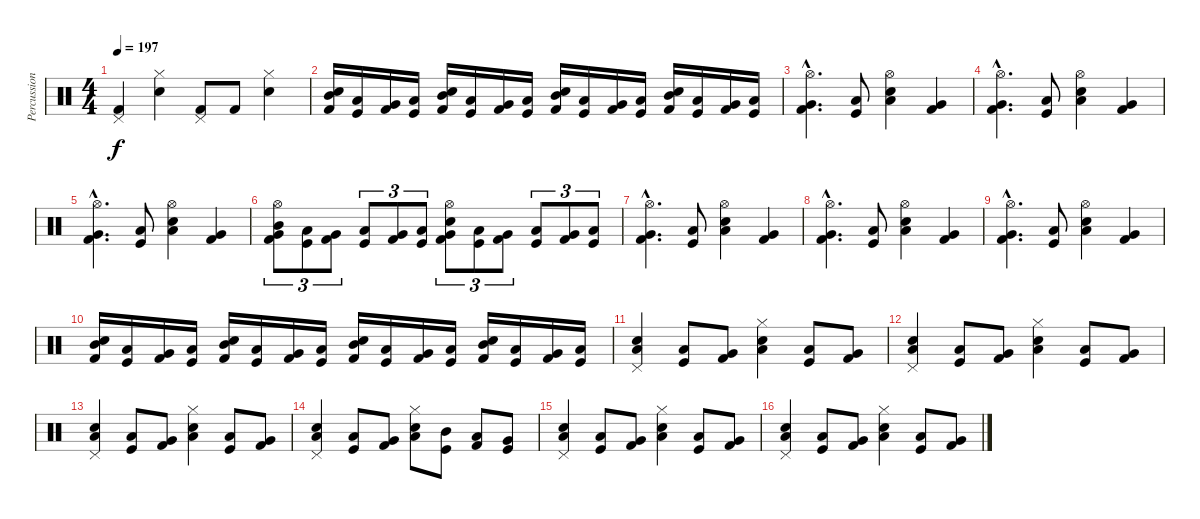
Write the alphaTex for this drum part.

\track ("Percussions" "Percussion") {instrument percussion}
\staff {score}
\articulation defaults
\ts (4 4)
\tempo 197
\clef neutral
\ks c
("Pedal Hi-Hat (hit)" "Kick (hit) 2").4{dy f} ("Hi-Hat (closed)" "Electric Snare (hit)").4 ("Pedal Hi-Hat (hit)" "Kick (hit) 2").8 "Kick (hit) 2".8 ("Hi-Hat (closed)" "Electric Snare (hit)").4 |
("Electric Snare (hit)" "Mid Tom (hit)" "Kick (hit) 2").16 ("Low Tom (hit)" "Kick (hit)").16 ("Very Low Tom (hit)" "Kick (hit) 2").16 ("Low Floor Tom (hit)" "Kick (hit)").16 ("Electric Snare (hit)" "Mid Tom (hit)" "Kick (hit) 2").16 ("Low Tom (hit)" "Kick (hit)").16 ("Very Low Tom (hit)" "Kick (hit) 2").16 ("Low Floor Tom (hit)" "Kick (hit)").16 ("Electric Snare (hit)" "Mid Tom (hit)" "Kick (hit) 2").16 ("Low Tom (hit)" "Kick (hit)").16 ("Very Low Tom (hit)" "Kick (hit) 2").16 ("Low Floor Tom (hit)" "Kick (hit)").16 ("Electric Snare (hit)" "Mid Tom (hit)" "Kick (hit) 2").16 ("Low Tom (hit)" "Kick (hit)").16 ("Very Low Tom (hit)" "Kick (hit) 2").16 ("Low Floor Tom (hit)" "Kick (hit)").16 |
("Hi-Hat (open)"{hac} "Very Low Tom (hit)"{hac} "Kick (hit) 2"{hac}).4{d} ("Low Tom (hit)" "Kick (hit)").8 ("Hi-Hat (open)" "Low Floor Tom (hit)" "Electric Snare (hit)").4 ("Very Low Tom (hit)" "Kick (hit) 2").4 |
("Hi-Hat (open)"{hac} "Very Low Tom (hit)"{hac} "Kick (hit) 2"{hac}).4{d} ("Low Tom (hit)" "Kick (hit)").8 ("Hi-Hat (open)" "Low Floor Tom (hit)" "Electric Snare (hit)").4 ("Very Low Tom (hit)" "Kick (hit) 2").4 |
("Hi-Hat (open)"{hac} "Very Low Tom (hit)"{hac} "Kick (hit) 2"{hac}).4{d} ("Low Tom (hit)" "Kick (hit)").8 ("Hi-Hat (open)" "Low Floor Tom (hit)" "Electric Snare (hit)").4 ("Very Low Tom (hit)" "Kick (hit) 2").4 |
("Hi-Hat (open)" "Mid Tom (hit)" "Very Low Tom (hit)" "Kick (hit) 2").8{tu (3 2)} ("Low Tom (hit)" "Kick (hit)").8{tu (3 2)} ("Very Low Tom (hit)" "Kick (hit) 2").8{tu (3 2)} ("Low Tom (hit)" "Kick (hit)").8{tu (3 2)} ("Very Low Tom (hit)" "Kick (hit) 2").8{tu (3 2)} ("Low Tom (hit)" "Kick (hit)").8{tu (3 2)} ("Hi-Hat (open)" "Electric Snare (hit)" "Very Low Tom (hit)" "Kick (hit) 2").8{tu (3 2)} ("Low Tom (hit)" "Kick (hit)").8{tu (3 2)} ("Very Low Tom (hit)" "Kick (hit) 2").8{tu (3 2)} ("Low Tom (hit)" "Kick (hit)").8{tu (3 2)} ("Very Low Tom (hit)" "Kick (hit) 2").8{tu (3 2)} ("Low Tom (hit)" "Kick (hit)").8{tu (3 2)} |
("Hi-Hat (open)"{hac} "Very Low Tom (hit)"{hac} "Kick (hit) 2"{hac}).4{d} ("Low Tom (hit)" "Kick (hit)").8 ("Hi-Hat (open)" "Low Floor Tom (hit)" "Electric Snare (hit)").4 ("Very Low Tom (hit)" "Kick (hit) 2").4 |
("Hi-Hat (open)"{hac} "Very Low Tom (hit)"{hac} "Kick (hit) 2"{hac}).4{d} ("Low Tom (hit)" "Kick (hit)").8 ("Hi-Hat (open)" "Low Floor Tom (hit)" "Electric Snare (hit)").4 ("Very Low Tom (hit)" "Kick (hit) 2").4 |
("Hi-Hat (open)"{hac} "Very Low Tom (hit)"{hac} "Kick (hit) 2"{hac}).4{d} ("Low Tom (hit)" "Kick (hit)").8 ("Hi-Hat (open)" "Low Floor Tom (hit)" "Electric Snare (hit)").4 ("Very Low Tom (hit)" "Kick (hit) 2").4 |
("Electric Snare (hit)" "Mid Tom (hit)" "Kick (hit) 2").16 ("Low Tom (hit)" "Kick (hit)").16 ("Very Low Tom (hit)" "Kick (hit) 2").16 ("Low Floor Tom (hit)" "Kick (hit)").16 ("Electric Snare (hit)" "Mid Tom (hit)" "Kick (hit) 2").16 ("Low Tom (hit)" "Kick (hit)").16 ("Very Low Tom (hit)" "Kick (hit) 2").16 ("Low Floor Tom (hit)" "Kick (hit)").16 ("Electric Snare (hit)" "Mid Tom (hit)" "Kick (hit) 2").16 ("Low Tom (hit)" "Kick (hit)").16 ("Very Low Tom (hit)" "Kick (hit) 2").16 ("Low Floor Tom (hit)" "Kick (hit)").16 ("Electric Snare (hit)" "Mid Tom (hit)" "Kick (hit) 2").16 ("Low Tom (hit)" "Kick (hit)").16 ("Very Low Tom (hit)" "Kick (hit) 2").16 ("Low Floor Tom (hit)" "Kick (hit)").16 |
("Pedal Hi-Hat (hit)" "Electric Snare (hit)" "Low Floor Tom (hit)").4 ("Low Tom (hit)" "Kick (hit)").8 ("Very Low Tom (hit)" "Kick (hit) 2").8 ("Hi-Hat (closed)" "Electric Snare (hit)" "Low Floor Tom (hit)").4 ("Low Tom (hit)" "Kick (hit)").8 ("Very Low Tom (hit)" "Kick (hit) 2").8 |
("Pedal Hi-Hat (hit)" "Electric Snare (hit)" "Low Floor Tom (hit)").4 ("Low Tom (hit)" "Kick (hit)").8 ("Very Low Tom (hit)" "Kick (hit) 2").8 ("Hi-Hat (closed)" "Electric Snare (hit)" "Low Floor Tom (hit)").4 ("Low Tom (hit)" "Kick (hit)").8 ("Very Low Tom (hit)" "Kick (hit) 2").8 |
("Pedal Hi-Hat (hit)" "Electric Snare (hit)" "Low Floor Tom (hit)").4 ("Low Tom (hit)" "Kick (hit)").8 ("Very Low Tom (hit)" "Kick (hit) 2").8 ("Hi-Hat (closed)" "Electric Snare (hit)" "Low Floor Tom (hit)").4 ("Low Tom (hit)" "Kick (hit)").8 ("Very Low Tom (hit)" "Kick (hit) 2").8 |
("Pedal Hi-Hat (hit)" "Electric Snare (hit)" "Low Floor Tom (hit)").4 ("Low Tom (hit)" "Kick (hit)").8 ("Very Low Tom (hit)" "Kick (hit) 2").8 ("Hi-Hat (closed)" "Electric Snare (hit)" "Low Floor Tom (hit)").8 ("Mid Tom (hit)" "Kick (hit)").8 ("Low Tom (hit)" "Kick (hit) 2").8 ("Very Low Tom (hit)" "Kick (hit)").8 |
("Pedal Hi-Hat (hit)" "Electric Snare (hit)" "Low Floor Tom (hit)").4 ("Low Tom (hit)" "Kick (hit)").8 ("Very Low Tom (hit)" "Kick (hit) 2").8 ("Hi-Hat (closed)" "Electric Snare (hit)" "Low Floor Tom (hit)").4 ("Low Tom (hit)" "Kick (hit)").8 ("Very Low Tom (hit)" "Kick (hit) 2").8 |
("Pedal Hi-Hat (hit)" "Electric Snare (hit)" "Low Floor Tom (hit)").4 ("Low Tom (hit)" "Kick (hit)").8 ("Very Low Tom (hit)" "Kick (hit) 2").8 ("Hi-Hat (closed)" "Electric Snare (hit)" "Low Floor Tom (hit)").4 ("Low Tom (hit)" "Kick (hit)").8 ("Very Low Tom (hit)" "Kick (hit) 2").8
